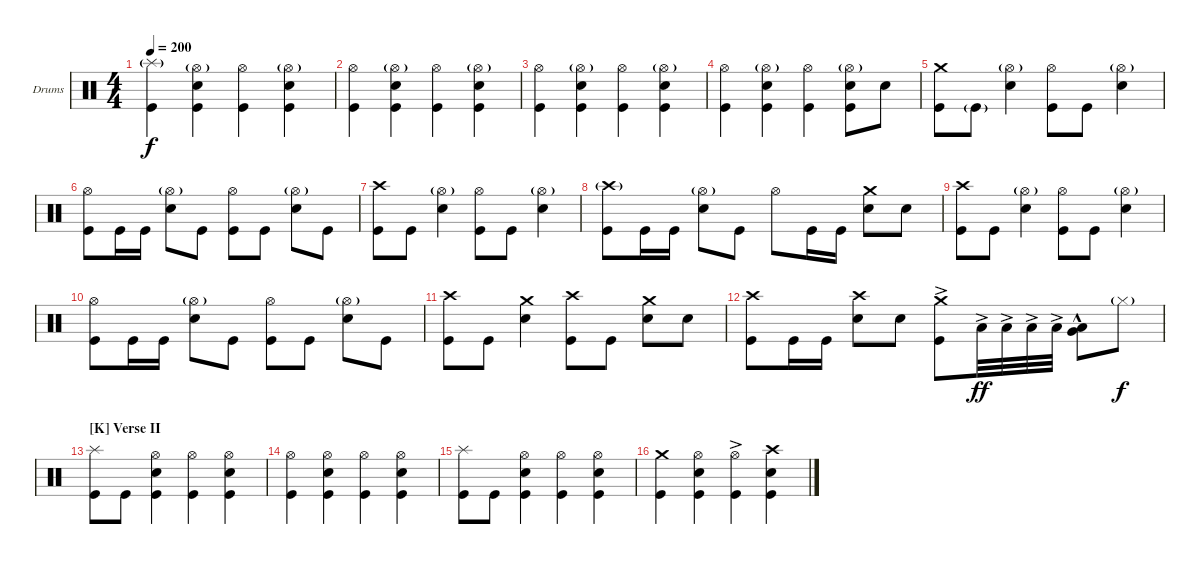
\defaultSystemsLayout 4
\bracketExtendMode groupsimilarinstruments
\firstSystemTrackNameOrientation horizontal
\otherSystemsTrackNameOrientation horizontal
\track ("Drumkit" "Drums") {instrument percussion}
\staff {score}
\articulation defaults
\ts (4 4)
\tempo 200
\clef neutral
\ks c
("Splash (hit)"{g} "Kick (hit)").4{dy f} ("Snare (hit) 2" "Kick (hit)" "Hi-Hat (open)"{g}).4 ("Kick (hit)" "Hi-Hat (open)").4 ("Snare (hit) 2" "Kick (hit)" "Hi-Hat (open)"{g}).4 |
("Kick (hit)" "Hi-Hat (open)").4 ("Snare (hit) 2" "Kick (hit)" "Hi-Hat (open)"{g}).4 ("Kick (hit)" "Hi-Hat (open)").4 ("Snare (hit) 2" "Kick (hit)" "Hi-Hat (open)"{g}).4 |
("Kick (hit)" "Hi-Hat (open)").4 ("Snare (hit) 2" "Kick (hit)" "Hi-Hat (open)"{g}).4 ("Kick (hit)" "Hi-Hat (open)").4 ("Snare (hit) 2" "Kick (hit)" "Hi-Hat (open)"{g}).4 |
("Kick (hit)" "Hi-Hat (open)").4 ("Snare (hit) 2" "Kick (hit)" "Hi-Hat (open)"{g}).4 ("Kick (hit)" "Hi-Hat (open)").4 ("Snare (hit) 2" "Kick (hit)" "Hi-Hat (open)"{g}).8 "Snare (hit) 2".8 |
("Kick (hit)" "Crash medium (hit)").8 "Kick (hit)"{g}.8 ("Snare (hit) 2" "Hi-Hat (open)"{g}).4 ("Kick (hit)" "Hi-Hat (open)").8 "Kick (hit)".8 ("Snare (hit) 2" "Hi-Hat (open)"{g}).4 |
("Kick (hit)" "Hi-Hat (open)").8 "Kick (hit)".16 "Kick (hit)".16 ("Snare (hit) 2" "Hi-Hat (open)"{g}).8 "Kick (hit)".8 ("Kick (hit)" "Hi-Hat (open)").8 "Kick (hit)".8 ("Snare (hit) 2" "Hi-Hat (open)"{g}).8 "Kick (hit)".8 |
("Kick (hit)" "Crash high (hit)").8 "Kick (hit)".8 ("Snare (hit) 2" "Hi-Hat (open)"{g}).4 ("Kick (hit)" "Hi-Hat (open)").8 "Kick (hit)".8 ("Snare (hit) 2" "Hi-Hat (open)"{g}).4 |
("Kick (hit)" "Crash high (hit)"{g}).8 "Kick (hit)".16 "Kick (hit)".16 ("Snare (hit) 2" "Hi-Hat (open)"{g}).8 "Kick (hit)".8 "Hi-Hat (open)".8 "Kick (hit)".16 "Kick (hit)".16 ("Snare (hit) 2" "Crash medium (hit)").8 "Snare (hit) 2".8 |
("Kick (hit)" "Crash high (hit)").8 "Kick (hit)".8 ("Snare (hit) 2" "Hi-Hat (open)"{g}).4 ("Kick (hit)" "Hi-Hat (open)").8 "Kick (hit)".8 ("Snare (hit) 2" "Hi-Hat (open)"{g}).4 |
("Kick (hit)" "Hi-Hat (open)").8 "Kick (hit)".16 "Kick (hit)".16 ("Snare (hit) 2" "Hi-Hat (open)"{g}).8 "Kick (hit)".8 ("Kick (hit)" "Hi-Hat (open)").8 "Kick (hit)".8 ("Snare (hit) 2" "Hi-Hat (open)"{g}).8 "Kick (hit)".8 |
("Kick (hit)" "Crash high (hit)").8 "Kick (hit)".8 ("Snare (hit) 2" "Crash medium (hit)").4 ("Kick (hit)" "Crash high (hit)").8 "Kick (hit)".8 ("Snare (hit) 2" "Crash medium (hit)").8 "Snare (hit) 2".8 |
("Kick (hit)" "Crash high (hit)").8 "Kick (hit)".16 "Kick (hit)".16 ("Snare (hit) 2" "Crash high (hit)").8 "Snare (hit) 2".8 ("Kick (hit)" "Crash medium (hit)"{ac}).8 "Low Tom (hit)"{ac}.32{dy ff} "Low Tom (hit)"{ac}.32 "Low Tom (hit)"{ac}.32 "Low Tom (hit)"{ac}.32 ("Low Tom (hit)"{hac} "Very Low Tom (hit)"{hac}).8 "Hi-Hat (closed)"{g}.8{dy f} |
\section ("K" "Verse II")
("Kick (hit)" "Splash (hit)").8 "Kick (hit)".8 ("Kick (hit)" "Snare (hit) 2" "Hi-Hat (open)").4 ("Kick (hit)" "Hi-Hat (open)").4 ("Snare (hit) 2" "Kick (hit)" "Hi-Hat (open)").4 |
("Kick (hit)" "Hi-Hat (open)").4 ("Snare (hit) 2" "Kick (hit)" "Hi-Hat (open)").4 ("Kick (hit)" "Hi-Hat (open)").4 ("Snare (hit) 2" "Kick (hit)" "Hi-Hat (open)").4 |
("Kick (hit)" "Splash (hit)").8 "Kick (hit)".8 ("Kick (hit)" "Snare (hit) 2" "Hi-Hat (open)").4 ("Kick (hit)" "Hi-Hat (open)").4 ("Snare (hit) 2" "Kick (hit)" "Hi-Hat (open)").4 |
("Kick (hit)" "Crash medium (hit)").4 ("Snare (hit) 2" "Kick (hit)" "Hi-Hat (open)").4 ("Kick (hit)" "Hi-Hat (open)"{ac}).4 ("Snare (hit) 2" "Kick (hit)" "Crash high (hit)").4
